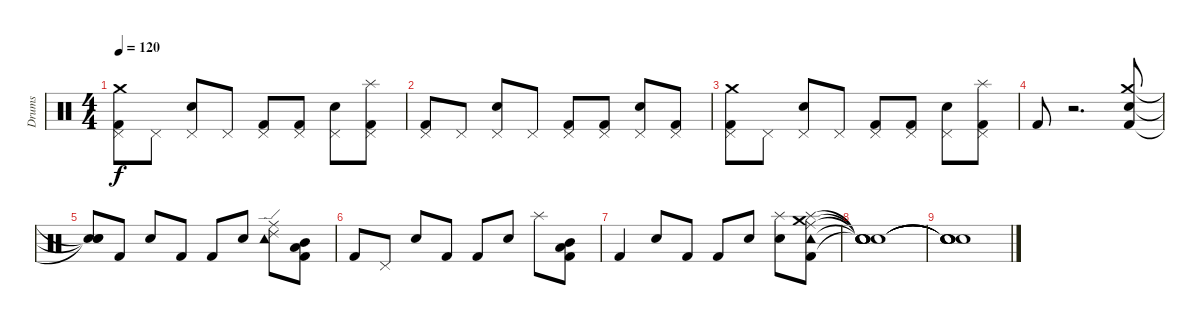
\track ("Drums" "Drums") {instrument percussion}
\staff {score}
\articulation defaults
\ts (4 4)
\tempo 120
\clef neutral
\ks c
("Pedal Hi-Hat (hit)" "Kick (hit) 2" "Crash medium (hit)").8{dy f} "Pedal Hi-Hat (hit)".8 ("Pedal Hi-Hat (hit)" "Snare (hit) 2").8 "Pedal Hi-Hat (hit)".8 ("Pedal Hi-Hat (hit)" "Kick (hit) 2").8 ("Pedal Hi-Hat (hit)" "Kick (hit) 2").8 ("Pedal Hi-Hat (hit)" "Snare (hit) 2").8 ("Pedal Hi-Hat (hit)" "Kick (hit) 2" "Splash (hit)").8 |
("Pedal Hi-Hat (hit)" "Kick (hit) 2").8 "Pedal Hi-Hat (hit)".8 ("Pedal Hi-Hat (hit)" "Snare (hit) 2").8 "Pedal Hi-Hat (hit)".8 ("Pedal Hi-Hat (hit)" "Kick (hit) 2").8 ("Pedal Hi-Hat (hit)" "Kick (hit) 2").8 ("Pedal Hi-Hat (hit)" "Snare (hit) 2").8 ("Pedal Hi-Hat (hit)" "Kick (hit) 2").8 |
("Pedal Hi-Hat (hit)" "Kick (hit) 2" "Crash medium (hit)").8 "Pedal Hi-Hat (hit)".8 ("Pedal Hi-Hat (hit)" "Snare (hit) 2").8 "Pedal Hi-Hat (hit)".8 ("Pedal Hi-Hat (hit)" "Kick (hit) 2").8 ("Pedal Hi-Hat (hit)" "Kick (hit) 2").8 ("Pedal Hi-Hat (hit)" "Snare (hit) 2").8 ("Pedal Hi-Hat (hit)" "Splash (hit)" "Kick (hit) 2").8 |
"Kick (hit) 2".8 r.2{d} ("Snare (hit) 2" "Crash medium (hit)" "Kick (hit) 2").8 |
("Snare (hit)"{t} "Snare (hit)"{t} "Snare (hit)"{t}).8 "Kick (hit) 2".8 "Snare (hit) 2".8 "Kick (hit) 2".8 "Kick (hit) 2".8 "Snare (hit) 2".8 ("Ride (edge) 2" "Tambourine (hit)" "Ride (middle)").8 ("Low Tom (hit)" "Mid Tom (hit)" "Kick (hit) 2").8 |
"Kick (hit) 2".8 "Pedal Hi-Hat (hit)".8 "Snare (hit) 2".8 "Kick (hit) 2".8 "Kick (hit) 2".8 "Snare (hit) 2".8 "Splash (hit)".8 ("Low Tom (hit)" "Mid Tom (hit)" "Kick (hit) 2").8 |
"Kick (hit) 2".4 "Snare (hit) 2".8 "Kick (hit) 2".8 "Kick (hit) 2".8 "Snare (hit) 2".8 ("Splash (hit)" "Snare (hit) 2").8 ("Splash (hit)" "Tambourine (hit)" "Ride (middle)" "Crash medium (hit)" "Kick (hit) 2").8 |
("Snare (hit)"{t} "Snare (hit)"{t} "Snare (hit)"{t} "Snare (hit)"{t} "Snare (hit)"{t}).1 |
("Snare (hit)"{t} "Snare (hit)"{t} "Snare (hit)"{t} "Snare (hit)"{t} "Snare (hit)"{t}).1
